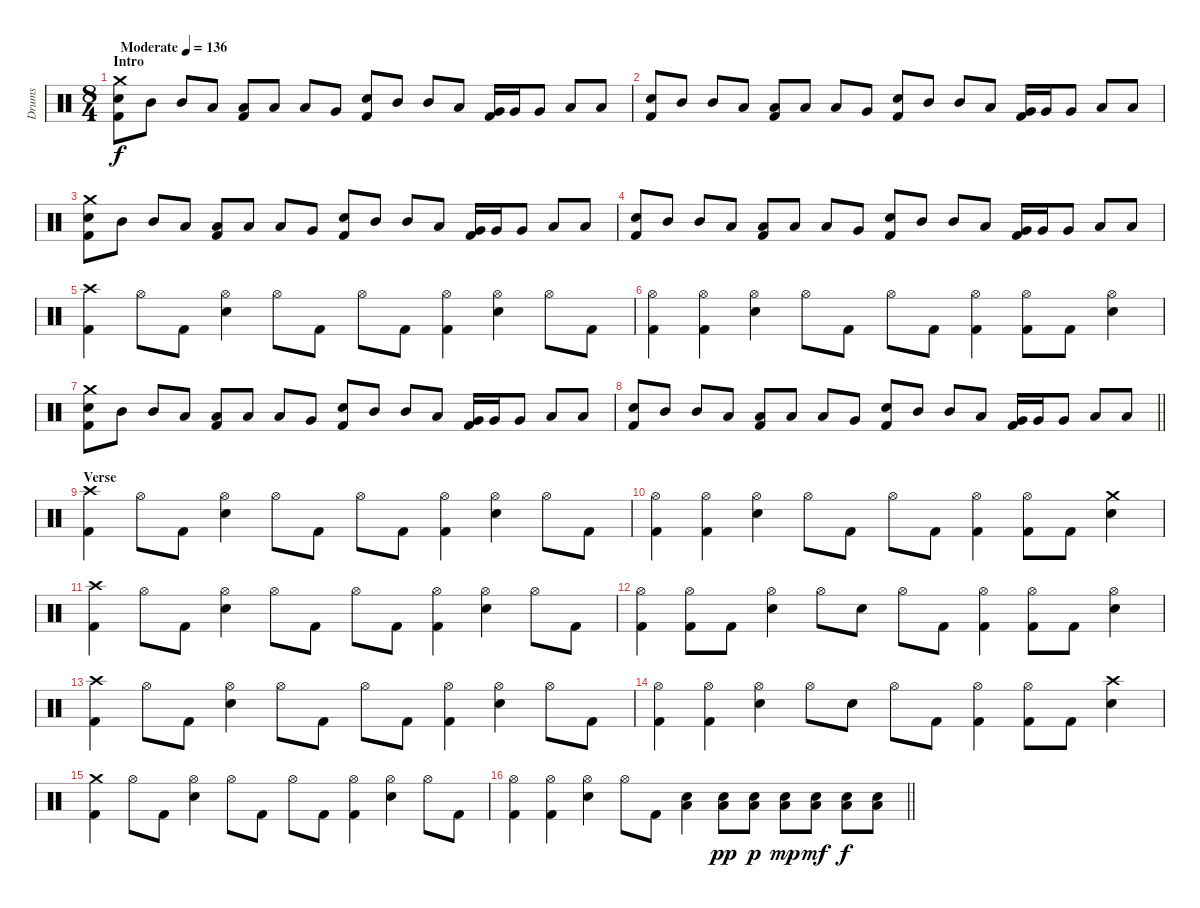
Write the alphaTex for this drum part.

\track ("Drums" "Drums") {instrument percussion}
\staff {score}
\articulation defaults
\ts (8 4)
\section ("" "Intro")
\tempo (136 "Moderate")
\clef neutral
\ks c
("Crash medium (hit)" "Snare (hit) 2" "Kick (hit) 2").8{dy f} "Mid Tom (hit)".8 "Mid Tom (hit)".8 "Low Tom (hit)".8 ("Low Tom (hit)" "Kick (hit) 2").8 "Low Tom (hit)".8 "Low Tom (hit)".8 "Very Low Tom (hit)".8 ("Snare (hit) 2" "Kick (hit) 2").8 "Mid Tom (hit)".8 "Mid Tom (hit)".8 "Low Tom (hit)".8 ("Very Low Tom (hit)" "Kick (hit) 2").16 "Very Low Tom (hit)".16 "Very Low Tom (hit)".8 "Low Floor Tom (hit)".8 "Low Floor Tom (hit)".8 |
("Snare (hit) 2" "Kick (hit) 2").8 "Mid Tom (hit)".8 "Mid Tom (hit)".8 "Low Tom (hit)".8 ("Low Tom (hit)" "Kick (hit) 2").8 "Low Tom (hit)".8 "Low Tom (hit)".8 "Very Low Tom (hit)".8 ("Snare (hit) 2" "Kick (hit) 2").8 "Mid Tom (hit)".8 "Mid Tom (hit)".8 "Low Tom (hit)".8 ("Very Low Tom (hit)" "Kick (hit) 2").16 "Very Low Tom (hit)".16 "Very Low Tom (hit)".8 "Low Floor Tom (hit)".8 "Low Floor Tom (hit)".8 |
("Crash medium (hit)" "Snare (hit) 2" "Kick (hit) 2").8 "Mid Tom (hit)".8 "Mid Tom (hit)".8 "Low Tom (hit)".8 ("Low Tom (hit)" "Kick (hit) 2").8 "Low Tom (hit)".8 "Low Tom (hit)".8 "Very Low Tom (hit)".8 ("Snare (hit) 2" "Kick (hit) 2").8 "Mid Tom (hit)".8 "Mid Tom (hit)".8 "Low Tom (hit)".8 ("Very Low Tom (hit)" "Kick (hit) 2").16 "Very Low Tom (hit)".16 "Very Low Tom (hit)".8 "Low Floor Tom (hit)".8 "Low Floor Tom (hit)".8 |
("Snare (hit) 2" "Kick (hit) 2").8 "Mid Tom (hit)".8 "Mid Tom (hit)".8 "Low Tom (hit)".8 ("Low Tom (hit)" "Kick (hit) 2").8 "Low Tom (hit)".8 "Low Tom (hit)".8 "Very Low Tom (hit)".8 ("Snare (hit) 2" "Kick (hit) 2").8 "Mid Tom (hit)".8 "Mid Tom (hit)".8 "Low Tom (hit)".8 ("Very Low Tom (hit)" "Kick (hit) 2").16 "Very Low Tom (hit)".16 "Very Low Tom (hit)".8 "Low Floor Tom (hit)".8 "Low Floor Tom (hit)".8 |
("Crash high (hit)" "Kick (hit) 2").4 "Hi-Hat (open)".8 "Kick (hit) 2".8 ("Hi-Hat (open)" "Snare (hit) 2").4 "Hi-Hat (open)".8 "Kick (hit) 2".8 "Hi-Hat (open)".8 "Kick (hit) 2".8 ("Hi-Hat (open)" "Kick (hit) 2").4 ("Hi-Hat (open)" "Snare (hit) 2").4 "Hi-Hat (open)".8 "Kick (hit) 2".8 |
("Hi-Hat (open)" "Kick (hit) 2").4 ("Hi-Hat (open)" "Kick (hit) 2").4 ("Hi-Hat (open)" "Snare (hit) 2").4 "Hi-Hat (open)".8 "Kick (hit) 2".8 "Hi-Hat (open)".8 "Kick (hit) 2".8 ("Hi-Hat (open)" "Kick (hit) 2").4 ("Hi-Hat (open)" "Kick (hit) 2").8 "Kick (hit) 2".8 ("Hi-Hat (open)" "Snare (hit) 2").4 |
("Crash medium (hit)" "Snare (hit) 2" "Kick (hit) 2").8 "Mid Tom (hit)".8 "Mid Tom (hit)".8 "Low Tom (hit)".8 ("Low Tom (hit)" "Kick (hit) 2").8 "Low Tom (hit)".8 "Low Tom (hit)".8 "Very Low Tom (hit)".8 ("Snare (hit) 2" "Kick (hit) 2").8 "Mid Tom (hit)".8 "Mid Tom (hit)".8 "Low Tom (hit)".8 ("Very Low Tom (hit)" "Kick (hit) 2").16 "Very Low Tom (hit)".16 "Very Low Tom (hit)".8 "Low Floor Tom (hit)".8 "Low Floor Tom (hit)".8 |
\barLineRight lightlight
("Snare (hit) 2" "Kick (hit) 2").8 "Mid Tom (hit)".8 "Mid Tom (hit)".8 "Low Tom (hit)".8 ("Low Tom (hit)" "Kick (hit) 2").8 "Low Tom (hit)".8 "Low Tom (hit)".8 "Very Low Tom (hit)".8 ("Snare (hit) 2" "Kick (hit) 2").8 "Mid Tom (hit)".8 "Mid Tom (hit)".8 "Low Tom (hit)".8 ("Very Low Tom (hit)" "Kick (hit) 2").16 "Very Low Tom (hit)".16 "Very Low Tom (hit)".8 "Low Floor Tom (hit)".8 "Low Floor Tom (hit)".8 |
\section ("" "Verse")
("Crash high (hit)" "Kick (hit) 2").4 "Hi-Hat (open)".8 "Kick (hit) 2".8 ("Hi-Hat (open)" "Snare (hit) 2").4 "Hi-Hat (open)".8 "Kick (hit) 2".8 "Hi-Hat (open)".8 "Kick (hit) 2".8 ("Hi-Hat (open)" "Kick (hit) 2").4 ("Hi-Hat (open)" "Snare (hit) 2").4 "Hi-Hat (open)".8 "Kick (hit) 2".8 |
("Hi-Hat (open)" "Kick (hit) 2").4 ("Hi-Hat (open)" "Kick (hit) 2").4 ("Hi-Hat (open)" "Snare (hit) 2").4 "Hi-Hat (open)".8 "Kick (hit) 2".8 "Hi-Hat (open)".8 "Kick (hit) 2".8 ("Hi-Hat (open)" "Kick (hit) 2").4 ("Hi-Hat (open)" "Kick (hit) 2").8 "Kick (hit) 2".8 ("Crash medium (hit)" "Snare (hit) 2").4 |
("Crash high (hit)" "Kick (hit) 2").4 "Hi-Hat (open)".8 "Kick (hit) 2".8 ("Hi-Hat (open)" "Snare (hit) 2").4 "Hi-Hat (open)".8 "Kick (hit) 2".8 "Hi-Hat (open)".8 "Kick (hit) 2".8 ("Hi-Hat (open)" "Kick (hit) 2").4 ("Hi-Hat (open)" "Snare (hit) 2").4 "Hi-Hat (open)".8 "Kick (hit) 2".8 |
("Hi-Hat (open)" "Kick (hit) 2").4 ("Hi-Hat (open)" "Kick (hit) 2").8 "Kick (hit) 2".8 ("Hi-Hat (open)" "Snare (hit) 2").4 "Hi-Hat (open)".8 "Snare (hit) 2".8 "Hi-Hat (open)".8 "Kick (hit) 2".8 ("Hi-Hat (open)" "Kick (hit) 2").4 ("Hi-Hat (open)" "Kick (hit) 2").8 "Kick (hit) 2".8 ("Hi-Hat (open)" "Snare (hit) 2").4 |
("Crash high (hit)" "Kick (hit) 2").4 "Hi-Hat (open)".8 "Kick (hit) 2".8 ("Hi-Hat (open)" "Snare (hit) 2").4 "Hi-Hat (open)".8 "Kick (hit) 2".8 "Hi-Hat (open)".8 "Kick (hit) 2".8 ("Hi-Hat (open)" "Kick (hit) 2").4 ("Hi-Hat (open)" "Snare (hit) 2").4 "Hi-Hat (open)".8 "Kick (hit) 2".8 |
("Hi-Hat (open)" "Kick (hit) 2").4 ("Hi-Hat (open)" "Kick (hit) 2").4 ("Hi-Hat (open)" "Snare (hit) 2").4 "Hi-Hat (open)".8 "Snare (hit) 2".8 "Hi-Hat (open)".8 "Kick (hit) 2".8 ("Hi-Hat (open)" "Kick (hit) 2").4 ("Hi-Hat (open)" "Kick (hit) 2").8 "Kick (hit) 2".8 ("Crash high (hit)" "Snare (hit) 2").4 |
("Crash medium (hit)" "Kick (hit) 2").4 "Hi-Hat (open)".8 "Kick (hit) 2".8 ("Hi-Hat (open)" "Snare (hit) 2").4 "Hi-Hat (open)".8 "Kick (hit) 2".8 "Hi-Hat (open)".8 "Kick (hit) 2".8 ("Hi-Hat (open)" "Kick (hit) 2").4 ("Hi-Hat (open)" "Snare (hit) 2").4 "Hi-Hat (open)".8 "Kick (hit) 2".8 |
\barLineRight lightlight
("Hi-Hat (open)" "Kick (hit) 2").4 ("Hi-Hat (open)" "Kick (hit) 2").4 ("Hi-Hat (open)" "Snare (hit) 2").4 "Hi-Hat (open)".8 "Kick (hit) 2".8 ("Low Tom (hit)" "Snare (hit) 2").4 ("Low Tom (hit)" "Snare (hit) 2").8{dy pp} ("Low Tom (hit)" "Snare (hit) 2").8{dy p} ("Low Tom (hit)" "Snare (hit) 2").8{dy mp} ("Low Tom (hit)" "Snare (hit) 2").8{dy mf} ("Low Tom (hit)" "Snare (hit) 2").8{dy f} ("Low Tom (hit)" "Snare (hit) 2").8
